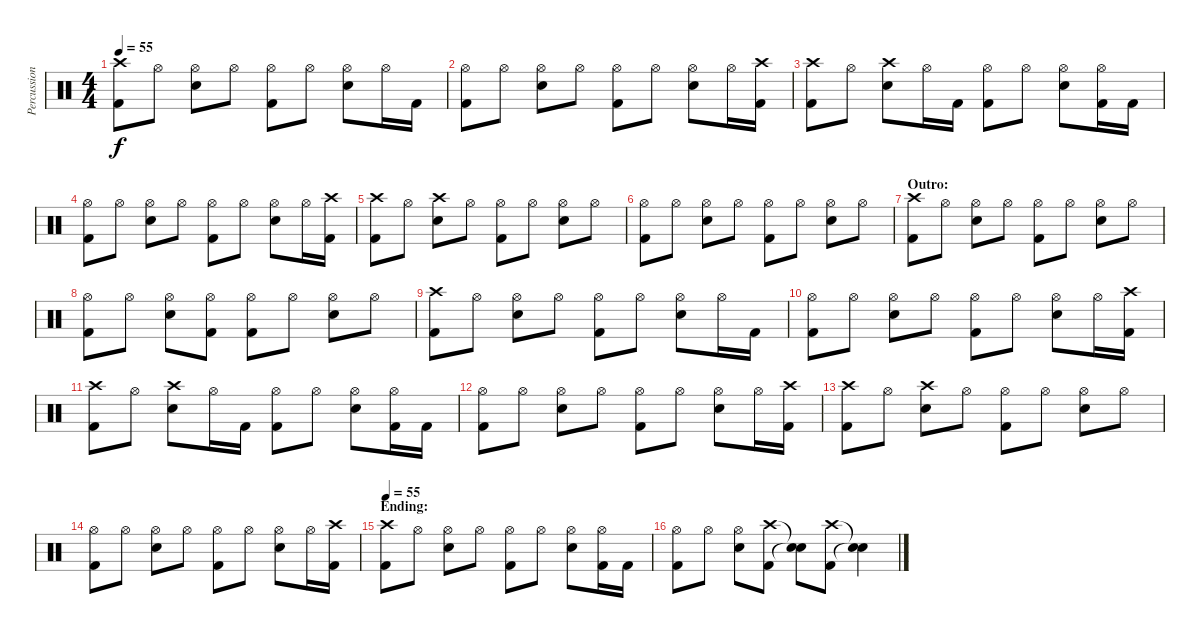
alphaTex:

\track ("Percussion" "Percussion") {instrument percussion}
\staff {score}
\articulation defaults
\ts (4 4)
\tempo 55
\clef neutral
\ks c
("Crash high (hit)" "Kick (hit) 2").8{dy f} "Hi-Hat (open)".8 ("Hi-Hat (open)" "Snare (hit) 2").8 "Hi-Hat (open)".8 ("Hi-Hat (open)" "Kick (hit) 2").8 "Hi-Hat (open)".8 ("Hi-Hat (open)" "Snare (hit) 2").8 "Hi-Hat (open)".16 "Kick (hit) 2".16 |
("Hi-Hat (open)" "Kick (hit) 2").8 "Hi-Hat (open)".8 ("Hi-Hat (open)" "Snare (hit) 2").8 "Hi-Hat (open)".8 ("Hi-Hat (open)" "Kick (hit) 2").8 "Hi-Hat (open)".8 ("Hi-Hat (open)" "Snare (hit) 2").8 "Hi-Hat (open)".16 ("Crash high (hit)" "Kick (hit) 2").16 |
("Crash high (hit)" "Kick (hit) 2").8 "Hi-Hat (open)".8 ("Crash high (hit)" "Snare (hit) 2").8 "Hi-Hat (open)".16 "Kick (hit) 2".16 ("Hi-Hat (open)" "Kick (hit) 2").8 "Hi-Hat (open)".8 ("Hi-Hat (open)" "Snare (hit) 2").8 ("Hi-Hat (open)" "Kick (hit) 2").16 "Kick (hit) 2".16 |
("Hi-Hat (open)" "Kick (hit) 2").8 "Hi-Hat (open)".8 ("Hi-Hat (open)" "Snare (hit) 2").8 "Hi-Hat (open)".8 ("Hi-Hat (open)" "Kick (hit) 2").8 "Hi-Hat (open)".8 ("Hi-Hat (open)" "Snare (hit) 2").8 "Hi-Hat (open)".16 ("Crash high (hit)" "Kick (hit) 2").16 |
("Crash high (hit)" "Kick (hit) 2").8 "Hi-Hat (open)".8 ("Crash high (hit)" "Snare (hit) 2").8 "Hi-Hat (open)".8 ("Hi-Hat (open)" "Kick (hit) 2").8 "Hi-Hat (open)".8 ("Hi-Hat (open)" "Snare (hit) 2").8 "Hi-Hat (open)".8 |
("Hi-Hat (open)" "Kick (hit) 2").8 "Hi-Hat (open)".8 ("Hi-Hat (open)" "Snare (hit) 2").8 "Hi-Hat (open)".8 ("Hi-Hat (open)" "Kick (hit) 2").8 "Hi-Hat (open)".8 ("Hi-Hat (open)" "Snare (hit) 2").8 "Hi-Hat (open)".8 |
\section ("" "Outro:")
("Crash high (hit)" "Kick (hit) 2").8 "Hi-Hat (open)".8 ("Hi-Hat (open)" "Snare (hit) 2").8 "Hi-Hat (open)".8 ("Hi-Hat (open)" "Kick (hit) 2").8 "Hi-Hat (open)".8 ("Hi-Hat (open)" "Snare (hit) 2").8 "Hi-Hat (open)".8 |
("Hi-Hat (open)" "Kick (hit) 2").8 "Hi-Hat (open)".8 ("Hi-Hat (open)" "Snare (hit) 2").8 ("Hi-Hat (open)" "Kick (hit) 2").8 ("Hi-Hat (open)" "Kick (hit) 2").8 "Hi-Hat (open)".8 ("Hi-Hat (open)" "Snare (hit) 2").8 "Hi-Hat (open)".8 |
("Crash high (hit)" "Kick (hit) 2").8 "Hi-Hat (open)".8 ("Hi-Hat (open)" "Snare (hit) 2").8 "Hi-Hat (open)".8 ("Hi-Hat (open)" "Kick (hit) 2").8 "Hi-Hat (open)".8 ("Hi-Hat (open)" "Snare (hit) 2").8 "Hi-Hat (open)".16 "Kick (hit) 2".16 |
("Hi-Hat (open)" "Kick (hit) 2").8 "Hi-Hat (open)".8 ("Hi-Hat (open)" "Snare (hit) 2").8 "Hi-Hat (open)".8 ("Hi-Hat (open)" "Kick (hit) 2").8 "Hi-Hat (open)".8 ("Hi-Hat (open)" "Snare (hit) 2").8 "Hi-Hat (open)".16 ("Crash high (hit)" "Kick (hit) 2").16 |
("Crash high (hit)" "Kick (hit) 2").8 "Hi-Hat (open)".8 ("Crash high (hit)" "Snare (hit) 2").8 "Hi-Hat (open)".16 "Kick (hit) 2".16 ("Hi-Hat (open)" "Kick (hit) 2").8 "Hi-Hat (open)".8 ("Hi-Hat (open)" "Snare (hit) 2").8 ("Hi-Hat (open)" "Kick (hit) 2").16 "Kick (hit) 2".16 |
("Hi-Hat (open)" "Kick (hit) 2").8 "Hi-Hat (open)".8 ("Hi-Hat (open)" "Snare (hit) 2").8 "Hi-Hat (open)".8 ("Hi-Hat (open)" "Kick (hit) 2").8 "Hi-Hat (open)".8 ("Hi-Hat (open)" "Snare (hit) 2").8 "Hi-Hat (open)".16 ("Crash high (hit)" "Kick (hit) 2").16 |
("Crash high (hit)" "Kick (hit) 2").8 "Hi-Hat (open)".8 ("Crash high (hit)" "Snare (hit) 2").8 "Hi-Hat (open)".8 ("Hi-Hat (open)" "Kick (hit) 2").8 "Hi-Hat (open)".8 ("Hi-Hat (open)" "Snare (hit) 2").8 "Hi-Hat (open)".8 |
("Hi-Hat (open)" "Kick (hit) 2").8 "Hi-Hat (open)".8 ("Hi-Hat (open)" "Snare (hit) 2").8 "Hi-Hat (open)".8 ("Hi-Hat (open)" "Kick (hit) 2").8 "Hi-Hat (open)".8 ("Hi-Hat (open)" "Snare (hit) 2").8 "Hi-Hat (open)".16 ("Crash high (hit)" "Kick (hit) 2").16 |
\section ("" "Ending:")
\tempo 55
("Crash high (hit)" "Kick (hit) 2").8 "Hi-Hat (open)".8 ("Hi-Hat (open)" "Snare (hit) 2").8 "Hi-Hat (open)".8 ("Hi-Hat (open)" "Kick (hit) 2").8 "Hi-Hat (open)".8 ("Hi-Hat (open)" "Snare (hit) 2").8 ("Hi-Hat (open)" "Kick (hit) 2").16 "Kick (hit) 2".16 |
("Hi-Hat (open)" "Kick (hit) 2").8 "Hi-Hat (open)".8 ("Hi-Hat (open)" "Snare (hit) 2").8 ("Crash high (hit)" "Kick (hit) 2").8 ("Snare (hit)"{t} "Snare (hit)"{t}).8 ("Crash high (hit)" "Kick (hit) 2").8 ("Snare (hit)"{t} "Snare (hit)"{t}).4
